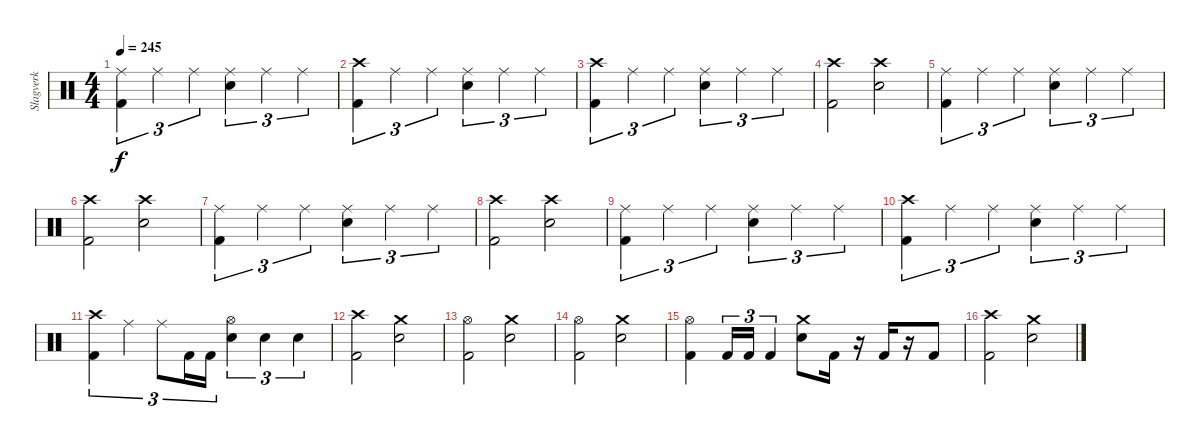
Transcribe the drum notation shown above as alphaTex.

\track ("Slagverk" "Slagverk") {instrument percussion}
\staff {score}
\articulation defaults
\ts (4 4)
\tempo 245
\clef neutral
\ks c
("Ride (middle)" "Kick (hit) 2").4{tu (3 2) dy f} "Ride (middle)".4{tu (3 2)} "Ride (middle)".4{tu (3 2)} ("Ride (middle)" "Snare (hit) 2").4{tu (3 2)} "Ride (middle)".4{tu (3 2)} "Ride (middle)".4{tu (3 2)} |
("Crash high (hit)" "Kick (hit) 2").4{tu (3 2)} "Ride (middle)".4{tu (3 2)} "Ride (middle)".4{tu (3 2)} ("Ride (middle)" "Snare (hit) 2").4{tu (3 2)} "Ride (middle)".4{tu (3 2)} "Ride (middle)".4{tu (3 2)} |
("Crash high (hit)" "Kick (hit) 2").4{tu (3 2)} "Ride (middle)".4{tu (3 2)} "Ride (middle)".4{tu (3 2)} ("Ride (middle)" "Snare (hit) 2").4{tu (3 2)} "Ride (middle)".4{tu (3 2)} "Ride (middle)".4{tu (3 2)} |
("Crash high (hit)" "Kick (hit) 2").2 ("Crash high (hit)" "Snare (hit) 2").2 |
("Ride (middle)" "Kick (hit) 2").4{tu (3 2)} "Ride (middle)".4{tu (3 2)} "Ride (middle)".4{tu (3 2)} ("Ride (middle)" "Snare (hit) 2").4{tu (3 2)} "Ride (middle)".4{tu (3 2)} "Ride (middle)".4{tu (3 2)} |
("Crash high (hit)" "Kick (hit) 2").2 ("Crash high (hit)" "Snare (hit) 2").2 |
("Ride (middle)" "Kick (hit) 2").4{tu (3 2)} "Ride (middle)".4{tu (3 2)} "Ride (middle)".4{tu (3 2)} ("Ride (middle)" "Snare (hit) 2").4{tu (3 2)} "Ride (middle)".4{tu (3 2)} "Ride (middle)".4{tu (3 2)} |
("Crash high (hit)" "Kick (hit) 2").2 ("Crash high (hit)" "Snare (hit) 2").2 |
("Ride (middle)" "Kick (hit) 2").4{tu (3 2)} "Ride (middle)".4{tu (3 2)} "Ride (middle)".4{tu (3 2)} ("Ride (middle)" "Snare (hit) 2").4{tu (3 2)} "Ride (middle)".4{tu (3 2)} "Ride (middle)".4{tu (3 2)} |
("Crash high (hit)" "Kick (hit) 2").4{tu (3 2)} "Ride (middle)".4{tu (3 2)} "Ride (middle)".4{tu (3 2)} ("Ride (middle)" "Snare (hit) 2").4{tu (3 2)} "Ride (middle)".4{tu (3 2)} "Ride (middle)".4{tu (3 2)} |
("Crash high (hit)" "Kick (hit) 2").4{tu (3 2)} "Ride (middle)".4{tu (3 2)} "Ride (middle)".8{tu (3 2)} "Kick (hit) 2".16{tu (3 2)} "Kick (hit) 2".16{tu (3 2)} ("Hi-Hat (open)" "Snare (hit) 2").4{tu (3 2)} "Snare (hit) 2".4{tu (3 2)} "Snare (hit) 2".4{tu (3 2)} |
("Crash high (hit)" "Kick (hit) 2").2 ("Crash medium (hit)" "Snare (hit) 2").2 |
("Hi-Hat (open)" "Kick (hit) 2").2 ("Crash medium (hit)" "Snare (hit) 2").2 |
("Hi-Hat (open)" "Kick (hit) 2").2 ("Crash medium (hit)" "Snare (hit) 2").2 |
("Hi-Hat (open)" "Kick (hit) 2").4 "Kick (hit) 2".16{tu (3 2)} "Kick (hit) 2".16{tu (3 2)} "Kick (hit) 2".4{tu (3 2)} ("Crash medium (hit)" "Snare (hit) 2").8 "Kick (hit) 2".16 r.16 "Kick (hit) 2".16 r.16 "Kick (hit) 2".8 |
("Crash high (hit)" "Kick (hit) 2").2 ("Crash medium (hit)" "Snare (hit) 2").2
